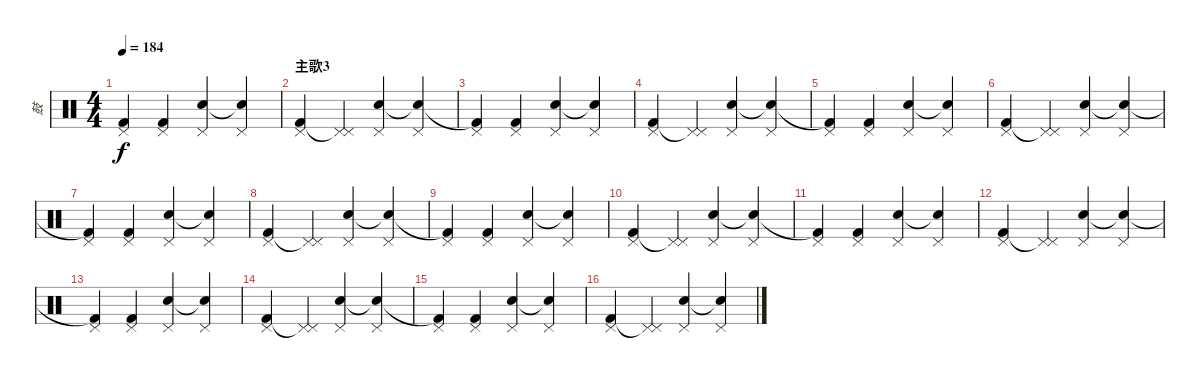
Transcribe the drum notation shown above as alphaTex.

\track ("鼓" "鼓") {instrument percussion}
\staff {score}
\articulation defaults
\ts (4 4)
\tempo 184
\clef neutral
\ks c
("Pedal Hi-Hat (hit)" "Kick (hit) 2"{t}).4{dy f} ("Pedal Hi-Hat (hit)" "Kick (hit) 2").4 ("Pedal Hi-Hat (hit)" "Electric Snare (hit)").4 ("Pedal Hi-Hat (hit)" "Snare (hit)"{t}).4 |
\section ("" "主歌3")
("Pedal Hi-Hat (hit)" "Kick (hit) 2").4{volume 10} ("Pedal Hi-Hat (hit)" "Pedal Hi-Hat (hit)"{t}).4 ("Pedal Hi-Hat (hit)" "Electric Snare (hit)").4 ("Pedal Hi-Hat (hit)" "Snare (hit)"{t}).4 |
("Pedal Hi-Hat (hit)" "Kick (hit) 2"{t}).4 ("Pedal Hi-Hat (hit)" "Kick (hit) 2").4 ("Pedal Hi-Hat (hit)" "Electric Snare (hit)").4 ("Pedal Hi-Hat (hit)" "Snare (hit)"{t}).4 |
("Pedal Hi-Hat (hit)" "Kick (hit) 2").4 ("Pedal Hi-Hat (hit)" "Pedal Hi-Hat (hit)"{t}).4 ("Pedal Hi-Hat (hit)" "Electric Snare (hit)").4 ("Pedal Hi-Hat (hit)" "Snare (hit)"{t}).4 |
("Pedal Hi-Hat (hit)" "Kick (hit) 2"{t}).4 ("Pedal Hi-Hat (hit)" "Kick (hit) 2").4 ("Pedal Hi-Hat (hit)" "Electric Snare (hit)").4 ("Pedal Hi-Hat (hit)" "Snare (hit)"{t}).4 |
("Pedal Hi-Hat (hit)" "Kick (hit) 2").4 ("Pedal Hi-Hat (hit)" "Pedal Hi-Hat (hit)"{t}).4 ("Pedal Hi-Hat (hit)" "Electric Snare (hit)").4 ("Pedal Hi-Hat (hit)" "Snare (hit)"{t}).4 |
("Pedal Hi-Hat (hit)" "Kick (hit) 2"{t}).4 ("Pedal Hi-Hat (hit)" "Kick (hit) 2").4 ("Pedal Hi-Hat (hit)" "Electric Snare (hit)").4 ("Pedal Hi-Hat (hit)" "Snare (hit)"{t}).4 |
("Pedal Hi-Hat (hit)" "Kick (hit) 2").4 ("Pedal Hi-Hat (hit)" "Pedal Hi-Hat (hit)"{t}).4 ("Pedal Hi-Hat (hit)" "Electric Snare (hit)").4 ("Pedal Hi-Hat (hit)" "Snare (hit)"{t}).4 |
("Pedal Hi-Hat (hit)" "Kick (hit) 2"{t}).4 ("Pedal Hi-Hat (hit)" "Kick (hit) 2").4 ("Pedal Hi-Hat (hit)" "Electric Snare (hit)").4 ("Pedal Hi-Hat (hit)" "Snare (hit)"{t}).4 |
("Pedal Hi-Hat (hit)" "Kick (hit) 2").4 ("Pedal Hi-Hat (hit)" "Pedal Hi-Hat (hit)"{t}).4 ("Pedal Hi-Hat (hit)" "Electric Snare (hit)").4 ("Pedal Hi-Hat (hit)" "Snare (hit)"{t}).4 |
("Pedal Hi-Hat (hit)" "Kick (hit) 2"{t}).4 ("Pedal Hi-Hat (hit)" "Kick (hit) 2").4 ("Pedal Hi-Hat (hit)" "Electric Snare (hit)").4 ("Pedal Hi-Hat (hit)" "Snare (hit)"{t}).4 |
("Pedal Hi-Hat (hit)" "Kick (hit) 2").4 ("Pedal Hi-Hat (hit)" "Pedal Hi-Hat (hit)"{t}).4 ("Pedal Hi-Hat (hit)" "Electric Snare (hit)").4 ("Pedal Hi-Hat (hit)" "Snare (hit)"{t}).4 |
("Pedal Hi-Hat (hit)" "Kick (hit) 2"{t}).4 ("Pedal Hi-Hat (hit)" "Kick (hit) 2").4 ("Pedal Hi-Hat (hit)" "Electric Snare (hit)").4 ("Pedal Hi-Hat (hit)" "Snare (hit)"{t}).4 |
("Pedal Hi-Hat (hit)" "Kick (hit) 2").4 ("Pedal Hi-Hat (hit)" "Pedal Hi-Hat (hit)"{t}).4 ("Pedal Hi-Hat (hit)" "Electric Snare (hit)").4 ("Pedal Hi-Hat (hit)" "Snare (hit)"{t}).4 |
("Pedal Hi-Hat (hit)" "Kick (hit) 2"{t}).4 ("Pedal Hi-Hat (hit)" "Kick (hit) 2").4 ("Pedal Hi-Hat (hit)" "Electric Snare (hit)").4 ("Pedal Hi-Hat (hit)" "Snare (hit)"{t}).4 |
("Pedal Hi-Hat (hit)" "Kick (hit) 2").4 ("Pedal Hi-Hat (hit)" "Pedal Hi-Hat (hit)"{t}).4 ("Pedal Hi-Hat (hit)" "Electric Snare (hit)").4 ("Pedal Hi-Hat (hit)" "Snare (hit)"{t}).4
